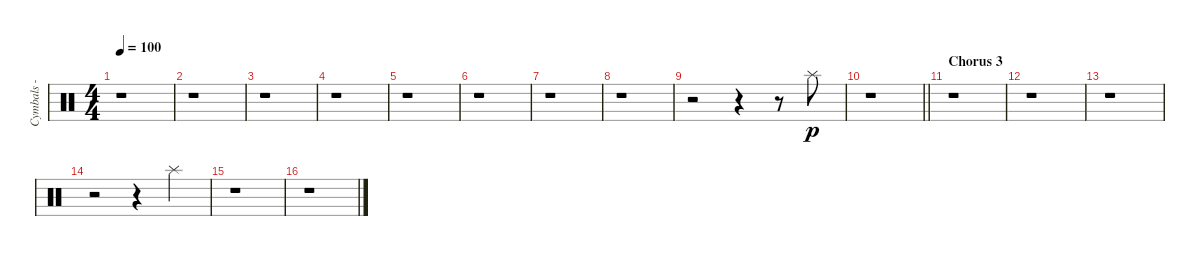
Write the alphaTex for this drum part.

\track ("Cymbals - splash" "Cymbals - ") {instrument percussion}
\staff {score}
\articulation defaults
\ts (4 4)
\tempo 100
\clef neutral
\ks c
r.1{dy p} |
r.1 |
r.1 |
r.1 |
r.1 |
r.1 |
r.1 |
r.1 |
r.2 r.4 r.8 "Splash (hit)".8 |
\barLineRight lightlight
r.1 |
\section ("" "Chorus 3")
r.1 |
r.1 |
r.1 |
r.2 r.4 "Splash (hit)".4 |
r.1 |
r.1
